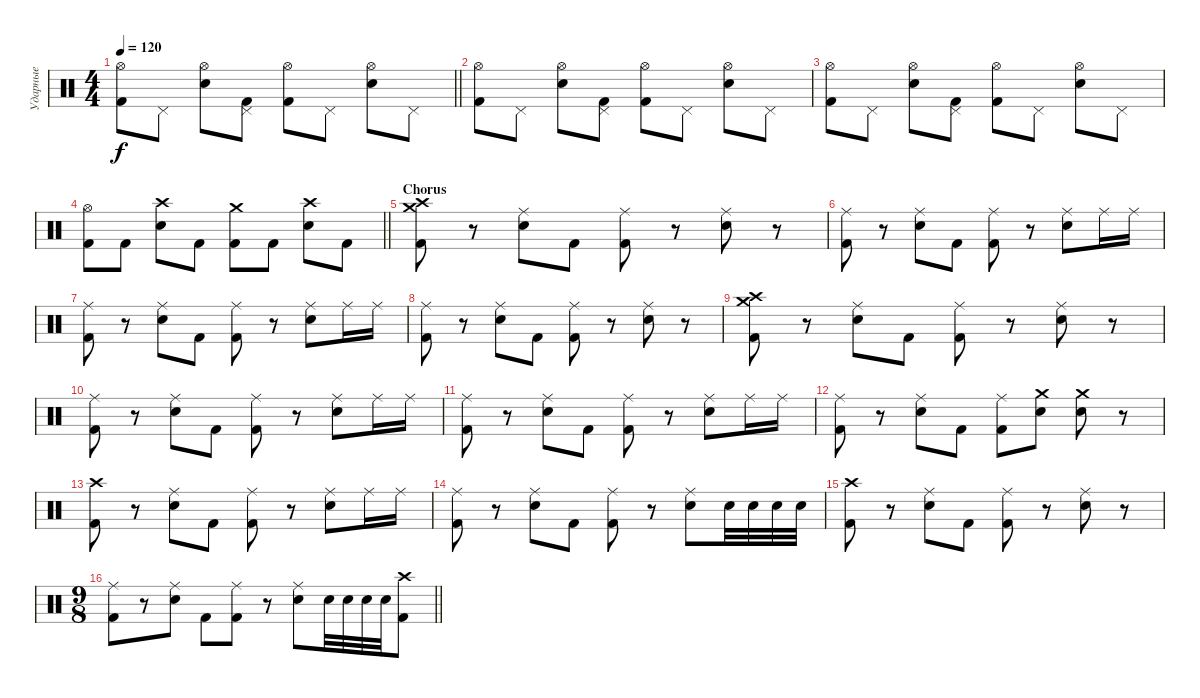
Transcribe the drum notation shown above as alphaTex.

\track ("Ударные" "Ударные") {instrument percussion}
\staff {score}
\articulation defaults
\ts (4 4)
\tempo 120
\clef neutral
\barLineRight lightlight
\ks c
("Hi-Hat (open)" "Kick (hit) 2").8{dy f} "Pedal Hi-Hat (hit)".8 ("Hi-Hat (open)" "Electric Snare (hit)").8 ("Pedal Hi-Hat (hit)" "Kick (hit) 2").8 ("Hi-Hat (open)" "Kick (hit) 2").8 "Pedal Hi-Hat (hit)".8 ("Hi-Hat (open)" "Electric Snare (hit)").8 "Pedal Hi-Hat (hit)".8 |
("Hi-Hat (open)" "Kick (hit) 2").8 "Pedal Hi-Hat (hit)".8 ("Hi-Hat (open)" "Electric Snare (hit)").8 ("Pedal Hi-Hat (hit)" "Kick (hit) 2").8 ("Hi-Hat (open)" "Kick (hit) 2").8 "Pedal Hi-Hat (hit)".8 ("Hi-Hat (open)" "Electric Snare (hit)").8 "Pedal Hi-Hat (hit)".8 |
("Hi-Hat (open)" "Kick (hit) 2").8 "Pedal Hi-Hat (hit)".8 ("Hi-Hat (open)" "Electric Snare (hit)").8 ("Pedal Hi-Hat (hit)" "Kick (hit) 2").8 ("Hi-Hat (open)" "Kick (hit) 2").8 "Pedal Hi-Hat (hit)".8 ("Hi-Hat (open)" "Electric Snare (hit)").8 "Pedal Hi-Hat (hit)".8 |
\barLineRight lightlight
("Hi-Hat (open)" "Kick (hit) 2").8 "Kick (hit) 2".8 ("Crash high (hit)" "Electric Snare (hit)").8 "Kick (hit) 2".8 ("Crash medium (hit)" "Kick (hit) 2").8 "Kick (hit) 2".8 ("Crash high (hit)" "Electric Snare (hit)").8 "Kick (hit) 2".8 |
\section ("" "Chorus")
("Crash high (hit)" "Crash medium (hit)" "Kick (hit) 2").8 r.8 ("Ride (middle)" "Electric Snare (hit)").8 "Kick (hit) 2".8 ("Ride (middle)" "Kick (hit) 2").8 r.8 ("Ride (middle)" "Electric Snare (hit)").8 r.8 |
("Ride (middle)" "Kick (hit) 2").8 r.8 ("Ride (middle)" "Electric Snare (hit)").8 "Kick (hit) 2".8 ("Ride (middle)" "Kick (hit) 2").8 r.8 ("Ride (middle)" "Electric Snare (hit)").8 "Ride (middle)".16 "Ride (middle)".16 |
("Ride (middle)" "Kick (hit) 2").8 r.8 ("Ride (middle)" "Electric Snare (hit)").8 "Kick (hit) 2".8 ("Ride (middle)" "Kick (hit) 2").8 r.8 ("Ride (middle)" "Electric Snare (hit)").8 "Ride (middle)".16 "Ride (middle)".16 |
("Ride (middle)" "Kick (hit) 2").8 r.8 ("Ride (middle)" "Electric Snare (hit)").8 "Kick (hit) 2".8 ("Ride (middle)" "Kick (hit) 2").8 r.8 ("Ride (middle)" "Electric Snare (hit)").8 r.8 |
("Crash high (hit)" "Crash medium (hit)" "Kick (hit) 2").8 r.8 ("Ride (middle)" "Electric Snare (hit)").8 "Kick (hit) 2".8 ("Ride (middle)" "Kick (hit) 2").8 r.8 ("Ride (middle)" "Electric Snare (hit)").8 r.8 |
("Ride (middle)" "Kick (hit) 2").8 r.8 ("Ride (middle)" "Electric Snare (hit)").8 "Kick (hit) 2".8 ("Ride (middle)" "Kick (hit) 2").8 r.8 ("Ride (middle)" "Electric Snare (hit)").8 "Ride (middle)".16 "Ride (middle)".16 |
("Ride (middle)" "Kick (hit) 2").8 r.8 ("Ride (middle)" "Electric Snare (hit)").8 "Kick (hit) 2".8 ("Ride (middle)" "Kick (hit) 2").8 r.8 ("Ride (middle)" "Electric Snare (hit)").8 "Ride (middle)".16 "Ride (middle)".16 |
("Ride (middle)" "Kick (hit) 2").8 r.8 ("Ride (middle)" "Electric Snare (hit)").8 "Kick (hit) 2".8 ("Ride (middle)" "Kick (hit) 2").8 ("Crash medium (hit)" "Electric Snare (hit)").8 ("Crash medium (hit)" "Electric Snare (hit)").8 r.8 |
("Crash high (hit)" "Kick (hit) 2").8 r.8 ("Ride (middle)" "Electric Snare (hit)").8 "Kick (hit) 2".8 ("Ride (middle)" "Kick (hit) 2").8 r.8 ("Ride (middle)" "Electric Snare (hit)").8 "Ride (middle)".16 "Ride (middle)".16 |
("Ride (middle)" "Kick (hit) 2").8 r.8 ("Ride (middle)" "Electric Snare (hit)").8 "Kick (hit) 2".8 ("Ride (middle)" "Kick (hit) 2").8 r.8 ("Ride (middle)" "Electric Snare (hit)").8 "Electric Snare (hit)".32 "Electric Snare (hit)".32 "Electric Snare (hit)".32 "Electric Snare (hit)".32 |
("Crash high (hit)" "Kick (hit) 2").8 r.8 ("Ride (middle)" "Electric Snare (hit)").8 "Kick (hit) 2".8 ("Ride (middle)" "Kick (hit) 2").8 r.8 ("Ride (middle)" "Electric Snare (hit)").8 r.8 |
\ts (9 8)
\barLineRight lightlight
("Ride (middle)" "Kick (hit) 2").8 r.8 ("Ride (middle)" "Electric Snare (hit)").8 "Kick (hit) 2".8 ("Ride (middle)" "Kick (hit) 2").8 r.8 ("Ride (middle)" "Electric Snare (hit)").8 "Electric Snare (hit)".32 "Electric Snare (hit)".32 "Electric Snare (hit)".32 "Electric Snare (hit)".32 ("Crash high (hit)" "Kick (hit) 2").8
